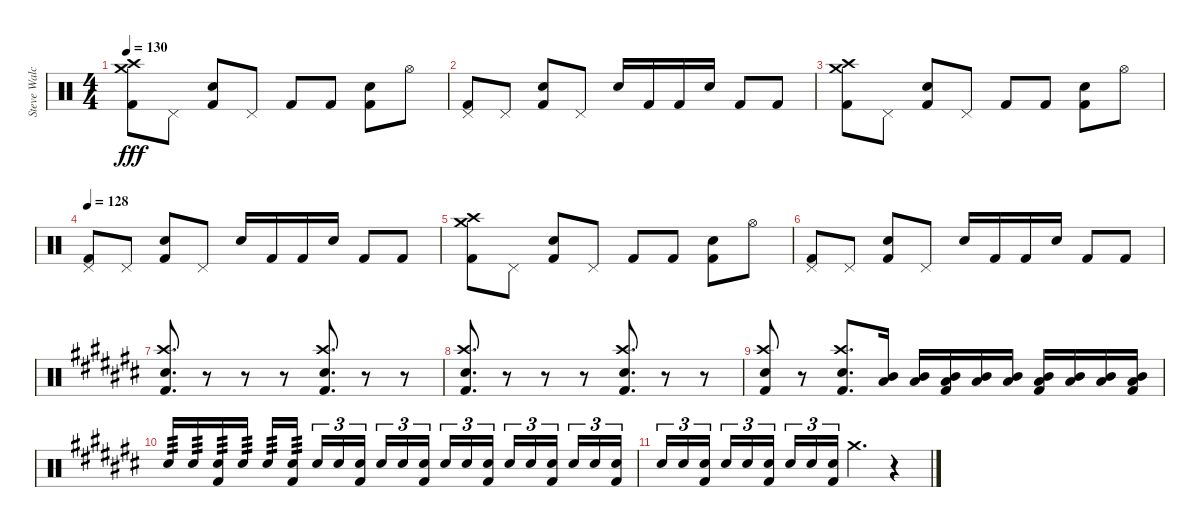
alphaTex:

\track ("Steve Walchoz" "Steve Walc") {instrument percussion}
\staff {score}
\articulation defaults
\ts (4 4)
\tempo 130
\clef neutral
\ks c
("Crash medium (hit)" "Crash high (hit)" "Kick (hit) 2").8{dy fff} "Pedal Hi-Hat (hit)".8 ("Snare (hit) 2" "Kick (hit) 2").8 "Pedal Hi-Hat (hit)".8 "Kick (hit) 2".8 "Kick (hit) 2".8 ("Snare (hit) 2" "Kick (hit) 2").8 "Hi-Hat (open)".8 |
("Pedal Hi-Hat (hit)" "Kick (hit) 2").8 "Pedal Hi-Hat (hit)".8 ("Snare (hit) 2" "Kick (hit) 2").8 "Pedal Hi-Hat (hit)".8 "Snare (hit) 2".16 "Kick (hit) 2".16 "Kick (hit) 2".16 "Snare (hit) 2".16 "Kick (hit) 2".8 "Kick (hit) 2".8 |
("Crash medium (hit)" "Crash high (hit)" "Kick (hit) 2").8 "Pedal Hi-Hat (hit)".8 ("Snare (hit) 2" "Kick (hit) 2").8 "Pedal Hi-Hat (hit)".8 "Kick (hit) 2".8 "Kick (hit) 2".8 ("Snare (hit) 2" "Kick (hit) 2").8 "Hi-Hat (open)".8 |
\tempo 128
("Pedal Hi-Hat (hit)" "Kick (hit) 2").8 "Pedal Hi-Hat (hit)".8 ("Snare (hit) 2" "Kick (hit) 2").8 "Pedal Hi-Hat (hit)".8 "Snare (hit) 2".16 "Kick (hit) 2".16 "Kick (hit) 2".16 "Snare (hit) 2".16 "Kick (hit) 2".8 "Kick (hit) 2".8 |
("Crash medium (hit)" "Crash high (hit)" "Kick (hit) 2").8 "Pedal Hi-Hat (hit)".8 ("Snare (hit) 2" "Kick (hit) 2").8 "Pedal Hi-Hat (hit)".8 "Kick (hit) 2".8 "Kick (hit) 2".8 ("Snare (hit) 2" "Kick (hit) 2").8 "Hi-Hat (open)".8 |
("Pedal Hi-Hat (hit)" "Kick (hit) 2").8 "Pedal Hi-Hat (hit)".8 ("Snare (hit) 2" "Kick (hit) 2").8 "Pedal Hi-Hat (hit)".8 "Snare (hit) 2".16 "Kick (hit) 2".16 "Kick (hit) 2".16 "Snare (hit) 2".16 "Kick (hit) 2".8 "Kick (hit) 2".8 |
\ks c#
("Crash high (hit)" "Snare (hit) 2" "Kick (hit) 2").8{d beam Up} r.8 r.8 r.8 ("Crash high (hit)" "Snare (hit) 2" "Kick (hit) 2").8{d beam Up} r.8 r.8 |
("Crash high (hit)" "Snare (hit) 2" "Kick (hit) 2").8{d beam Up} r.8 r.8 r.8 ("Crash high (hit)" "Snare (hit) 2" "Kick (hit) 2").8{d beam Up} r.8 r.8 |
("Crash high (hit)" "Snare (hit) 2" "Kick (hit) 2").8{beam Up} r.8 ("Crash high (hit)" "Snare (hit) 2" "Kick (hit) 2").8{d beam Up} ("Mid Tom (hit)" "Low Tom (hit)").16 ("Mid Tom (hit)" "Low Tom (hit)").16 ("Mid Tom (hit)" "Low Tom (hit)" "Kick (hit) 2").16 ("Mid Tom (hit)" "Low Tom (hit)").16 ("Mid Tom (hit)" "Low Tom (hit)").16 ("Mid Tom (hit)" "Low Tom (hit)" "Kick (hit) 2").16 ("Mid Tom (hit)" "Low Tom (hit)").16 ("Mid Tom (hit)" "Low Tom (hit)").16 ("Mid Tom (hit)" "Low Tom (hit)" "Kick (hit) 2").16 |
"Snare (hit) 2".16{tp 3} "Snare (hit) 2".16{tp 3} ("Snare (hit) 2" "Kick (hit) 2").16{tp 3} "Snare (hit) 2".16{tp 3} "Snare (hit) 2".16{tp 3} ("Snare (hit) 2" "Kick (hit) 2").16{tp 3 beam splitsecondary} "Snare (hit) 2".16{tu (3 2)} "Snare (hit) 2".16{tu (3 2)} ("Snare (hit) 2" "Kick (hit) 2").16{tu (3 2)} "Snare (hit) 2".16{tu (3 2)} "Snare (hit) 2".16{tu (3 2)} ("Snare (hit) 2" "Kick (hit) 2").16{tu (3 2) beam splitsecondary} "Snare (hit) 2".16{tu (3 2)} "Snare (hit) 2".16{tu (3 2)} ("Snare (hit) 2" "Kick (hit) 2").16{tu (3 2)} "Snare (hit) 2".16{tu (3 2)} "Snare (hit) 2".16{tu (3 2)} ("Snare (hit) 2" "Kick (hit) 2").16{tu (3 2) beam splitsecondary} "Snare (hit) 2".16{tu (3 2)} "Snare (hit) 2".16{tu (3 2)} ("Snare (hit) 2" "Kick (hit) 2").16{tu (3 2)} |
"Snare (hit) 2".16{tu (3 2)} "Snare (hit) 2".16{tu (3 2)} ("Snare (hit) 2" "Kick (hit) 2").16{tu (3 2) beam splitsecondary} "Snare (hit) 2".16{tu (3 2)} "Snare (hit) 2".16{tu (3 2)} ("Snare (hit) 2" "Kick (hit) 2").16{tu (3 2)} "Snare (hit) 2".16{tu (3 2)} "Snare (hit) 2".16{tu (3 2)} ("Snare (hit) 2" "Kick (hit) 2").16{tu (3 2)} "Crash medium (hit)".4{d} r.4
